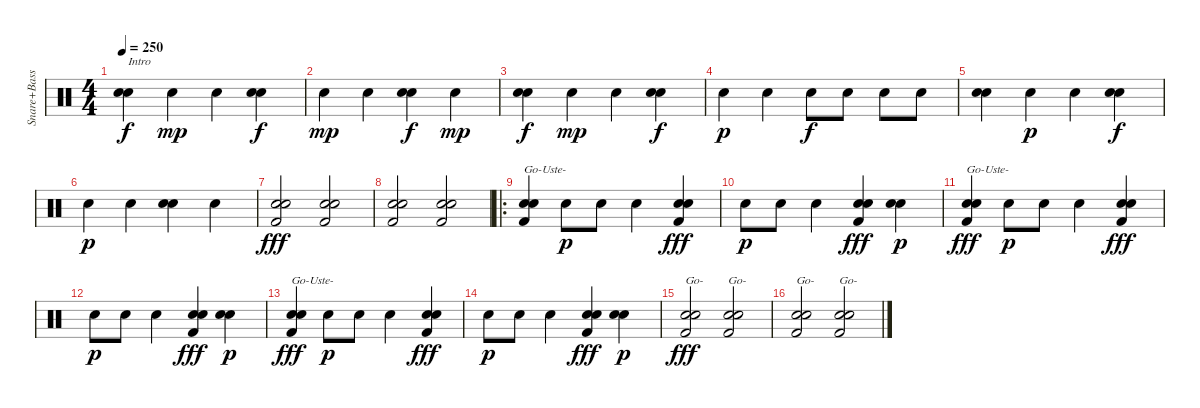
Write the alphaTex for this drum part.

\track ("Snare+Bass" "Snare+Bass") {instrument percussion}
\staff {score}
\articulation defaults
\ts (4 4)
\tempo 250
\clef neutral
\ks c
("Snare (hit) 2" "Snare (hit) 2").4{txt "Intro" dy f} "Snare (hit) 2".4{dy mp} "Snare (hit) 2".4 ("Snare (hit) 2" "Snare (hit) 2").4{dy f} |
"Snare (hit) 2".4{dy mp} "Snare (hit) 2".4 ("Snare (hit) 2" "Snare (hit) 2").4{dy f} "Snare (hit) 2".4{dy mp} |
("Snare (hit) 2" "Snare (hit) 2").4{dy f} "Snare (hit) 2".4{dy mp} "Snare (hit) 2".4 ("Snare (hit) 2" "Snare (hit) 2").4{dy f} |
"Snare (hit) 2".4{dy p} "Snare (hit) 2".4 "Snare (hit) 2".8{dy f} "Snare (hit) 2".8 "Snare (hit) 2".8 "Snare (hit) 2".8 |
("Snare (hit) 2" "Snare (hit) 2").4 "Snare (hit) 2".4{dy p} "Snare (hit) 2".4 ("Snare (hit) 2" "Snare (hit) 2").4{dy f} |
"Snare (hit) 2".4{dy p} "Snare (hit) 2".4 ("Snare (hit) 2" "Snare (hit) 2").4 "Snare (hit) 2".4 |
("Snare (hit) 2" "Snare (hit) 2" "Kick (hit) 2").2{dy fff} ("Snare (hit) 2" "Snare (hit) 2" "Kick (hit) 2").2 |
("Snare (hit) 2" "Snare (hit) 2" "Kick (hit) 2").2 ("Snare (hit) 2" "Snare (hit) 2" "Kick (hit) 2").2 |
\ro
("Snare (hit) 2" "Snare (hit) 2" "Kick (hit) 2").4{txt "Go-Uste-"} "Snare (hit) 2".8{dy p} "Snare (hit) 2".8 "Snare (hit) 2".4 ("Snare (hit) 2" "Snare (hit) 2" "Kick (hit) 2").4{dy fff} |
"Snare (hit) 2".8{dy p} "Snare (hit) 2".8 "Snare (hit) 2".4 ("Snare (hit) 2" "Snare (hit) 2" "Kick (hit) 2").4{dy fff} ("Snare (hit) 2" "Snare (hit) 2").4{dy p} |
("Snare (hit) 2" "Snare (hit) 2" "Kick (hit) 2").4{txt "Go-Uste-" dy fff} "Snare (hit) 2".8{dy p} "Snare (hit) 2".8 "Snare (hit) 2".4 ("Snare (hit) 2" "Snare (hit) 2" "Kick (hit) 2").4{dy fff} |
"Snare (hit) 2".8{dy p} "Snare (hit) 2".8 "Snare (hit) 2".4 ("Snare (hit) 2" "Snare (hit) 2" "Kick (hit) 2").4{dy fff} ("Snare (hit) 2" "Snare (hit) 2").4{dy p} |
("Snare (hit) 2" "Snare (hit) 2" "Kick (hit) 2").4{txt "Go-Uste-" dy fff} "Snare (hit) 2".8{dy p} "Snare (hit) 2".8 "Snare (hit) 2".4 ("Snare (hit) 2" "Snare (hit) 2" "Kick (hit) 2").4{dy fff} |
"Snare (hit) 2".8{dy p} "Snare (hit) 2".8 "Snare (hit) 2".4 ("Snare (hit) 2" "Snare (hit) 2" "Kick (hit) 2").4{dy fff} ("Snare (hit) 2" "Snare (hit) 2").4{dy p} |
("Snare (hit) 2" "Snare (hit) 2" "Kick (hit) 2").2{txt "Go-" dy fff} ("Snare (hit) 2" "Snare (hit) 2" "Kick (hit) 2").2{txt "Go-"} |
("Snare (hit) 2" "Snare (hit) 2" "Kick (hit) 2").2{txt "Go-"} ("Snare (hit) 2" "Snare (hit) 2" "Kick (hit) 2").2{txt "Go-"}
